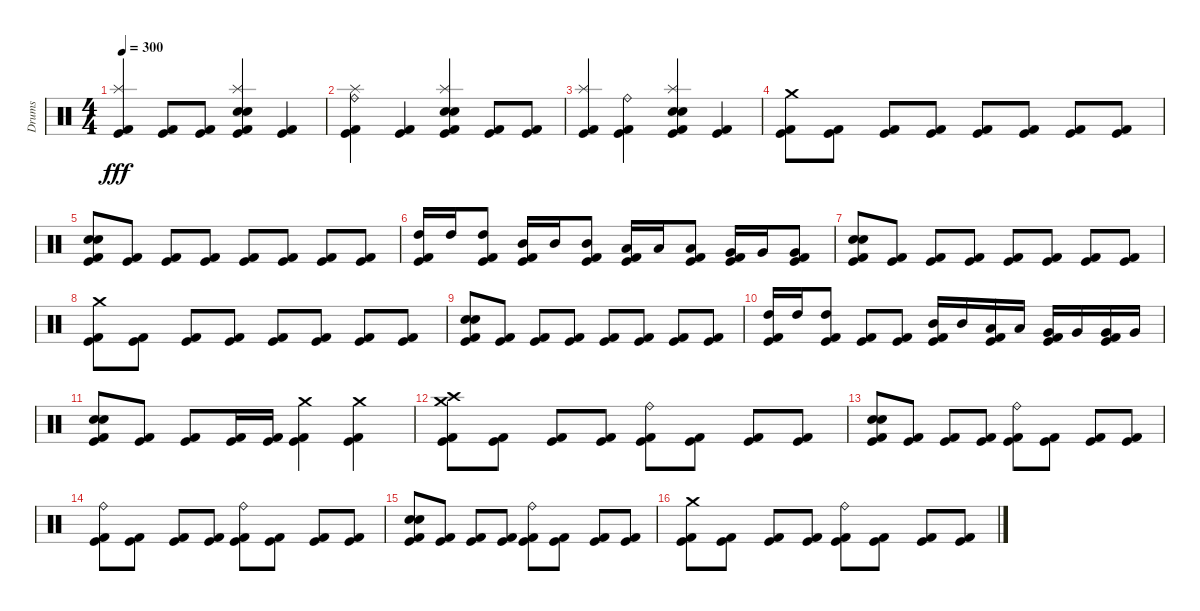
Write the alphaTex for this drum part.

\track ("Drums" "Drums") {instrument percussion}
\staff {score}
\articulation defaults
\ts (4 4)
\tempo 300
\clef neutral
\ks c
("Kick (hit) 2" "Splash (hit)" "Kick (hit)").4{dy fff} ("Kick (hit) 2" "Kick (hit)").8 ("Kick (hit) 2" "Kick (hit)").8 ("Kick (hit) 2" "Snare (hit) 2" "Electric Snare (hit)" "Splash (hit)" "Kick (hit)").4 ("Kick (hit) 2" "Kick (hit)").4 |
("Kick (hit) 2" "Ride (bell)" "Splash (hit)" "Kick (hit)").4 ("Kick (hit) 2" "Kick (hit)").4 ("Kick (hit) 2" "Electric Snare (hit)" "Snare (hit) 2" "Splash (hit)" "Kick (hit)").4 ("Kick (hit) 2" "Kick (hit)").8 ("Kick (hit) 2" "Kick (hit)").8 |
("Kick (hit) 2" "Splash (hit)" "Kick (hit)").4 ("Kick (hit) 2" "Ride (bell)" "Kick (hit)").4 ("Kick (hit) 2" "Snare (hit) 2" "Electric Snare (hit)" "Splash (hit)" "Kick (hit)").4 ("Kick (hit) 2" "Kick (hit)").4 |
("Crash medium (hit)" "Kick (hit) 2" "Kick (hit)").8 ("Kick (hit) 2" "Kick (hit)").8 ("Kick (hit) 2" "Kick (hit)").8 ("Kick (hit) 2" "Kick (hit)").8 ("Kick (hit) 2" "Kick (hit)").8 ("Kick (hit) 2" "Kick (hit)").8 ("Kick (hit) 2" "Kick (hit)").8 ("Kick (hit) 2" "Kick (hit)").8 |
("Kick (hit) 2" "Snare (hit) 2" "Electric Snare (hit)" "Kick (hit)").8 ("Kick (hit) 2" "Kick (hit)").8 ("Kick (hit) 2" "Kick (hit)").8 ("Kick (hit) 2" "Kick (hit)").8 ("Kick (hit) 2" "Kick (hit)").8 ("Kick (hit) 2" "Kick (hit)").8 ("Kick (hit) 2" "Kick (hit)").8 ("Kick (hit) 2" "Kick (hit)").8 |
("Kick (hit) 2" "High Tom (hit)" "Kick (hit)").16 "High Tom (hit)".16 ("Kick (hit) 2" "High Tom (hit)" "Kick (hit)").8 ("Kick (hit) 2" "Mid Tom (hit)" "Kick (hit)").16 "Mid Tom (hit)".16 ("Kick (hit) 2" "Mid Tom (hit)" "Kick (hit)").8 ("Kick (hit) 2" "Low Tom (hit)" "Kick (hit)").16 "Low Tom (hit)".16 ("Kick (hit) 2" "Low Tom (hit)" "Kick (hit)").8 ("Kick (hit) 2" "Very Low Tom (hit)" "Kick (hit)").16 "Very Low Tom (hit)".16 ("Kick (hit) 2" "Very Low Tom (hit)" "Kick (hit)").8 |
("Kick (hit) 2" "Snare (hit) 2" "Electric Snare (hit)" "Kick (hit)").8 ("Kick (hit) 2" "Kick (hit)").8 ("Kick (hit) 2" "Kick (hit)").8 ("Kick (hit) 2" "Kick (hit)").8 ("Kick (hit) 2" "Kick (hit)").8 ("Kick (hit) 2" "Kick (hit)").8 ("Kick (hit) 2" "Kick (hit)").8 ("Kick (hit) 2" "Kick (hit)").8 |
("Crash medium (hit)" "Kick (hit) 2" "Kick (hit)").8 ("Kick (hit) 2" "Kick (hit)").8 ("Kick (hit) 2" "Kick (hit)").8 ("Kick (hit) 2" "Kick (hit)").8 ("Kick (hit) 2" "Kick (hit)").8 ("Kick (hit) 2" "Kick (hit)").8 ("Kick (hit) 2" "Kick (hit)").8 ("Kick (hit) 2" "Kick (hit)").8 |
("Kick (hit) 2" "Snare (hit) 2" "Electric Snare (hit)" "Kick (hit)").8 ("Kick (hit) 2" "Kick (hit)").8 ("Kick (hit) 2" "Kick (hit)").8 ("Kick (hit) 2" "Kick (hit)").8 ("Kick (hit) 2" "Kick (hit)").8 ("Kick (hit) 2" "Kick (hit)").8 ("Kick (hit) 2" "Kick (hit)").8 ("Kick (hit) 2" "Kick (hit)").8 |
("Kick (hit) 2" "High Tom (hit)" "Kick (hit)").16 "High Tom (hit)".16 ("Kick (hit) 2" "High Tom (hit)" "Kick (hit)").8 ("Kick (hit) 2" "Kick (hit)").8 ("Kick (hit) 2" "Kick (hit)").8 ("Kick (hit) 2" "Mid Tom (hit)" "Kick (hit)").16 "Mid Tom (hit)".16 ("Kick (hit) 2" "Low Tom (hit)" "Kick (hit)").16 "Low Tom (hit)".16 ("Kick (hit) 2" "Very Low Tom (hit)" "Kick (hit)").16 "Very Low Tom (hit)".16 ("Kick (hit) 2" "Very Low Tom (hit)" "Kick (hit)").16 "Very Low Tom (hit)".16 |
("Kick (hit) 2" "Snare (hit) 2" "Electric Snare (hit)" "Kick (hit)").8 ("Kick (hit) 2" "Kick (hit)").8 ("Kick (hit) 2" "Kick (hit)").8 ("Kick (hit) 2" "Kick (hit)").16 ("Kick (hit) 2" "Kick (hit)").16 ("Crash medium (hit)" "Kick (hit) 2" "Kick (hit)").4 ("Crash medium (hit)" "Kick (hit) 2" "Kick (hit)").4 |
("Kick (hit) 2" "Crash high (hit)" "Crash medium (hit)" "Kick (hit)").8 ("Kick (hit) 2" "Kick (hit)").8 ("Kick (hit) 2" "Kick (hit)").8 ("Kick (hit) 2" "Kick (hit)").8 ("Kick (hit) 2" "Kick (hit)" "Ride (bell)").8 ("Kick (hit) 2" "Kick (hit)").8 ("Kick (hit) 2" "Kick (hit)").8 ("Kick (hit) 2" "Kick (hit)").8 |
("Kick (hit) 2" "Kick (hit)" "Electric Snare (hit)" "Snare (hit) 2").8 ("Kick (hit) 2" "Kick (hit)").8 ("Kick (hit) 2" "Kick (hit)").8 ("Kick (hit) 2" "Kick (hit)").8 ("Kick (hit) 2" "Kick (hit)" "Ride (bell)").8 ("Kick (hit) 2" "Kick (hit)").8 ("Kick (hit) 2" "Kick (hit)").8 ("Kick (hit) 2" "Kick (hit)").8 |
("Kick (hit) 2" "Ride (bell)" "Kick (hit)").8 ("Kick (hit) 2" "Kick (hit)").8 ("Kick (hit) 2" "Kick (hit)").8 ("Kick (hit) 2" "Kick (hit)").8 ("Kick (hit) 2" "Ride (bell)" "Kick (hit)").8 ("Kick (hit) 2" "Kick (hit)").8 ("Kick (hit) 2" "Kick (hit)").8 ("Kick (hit) 2" "Kick (hit)").8 |
("Kick (hit) 2" "Snare (hit) 2" "Electric Snare (hit)" "Kick (hit)").8 ("Kick (hit) 2" "Kick (hit)").8 ("Kick (hit) 2" "Kick (hit)").8 ("Kick (hit) 2" "Kick (hit)").8 ("Kick (hit) 2" "Ride (bell)" "Kick (hit)").8 ("Kick (hit) 2" "Kick (hit)").8 ("Kick (hit) 2" "Kick (hit)").8 ("Kick (hit) 2" "Kick (hit)").8 |
("Kick (hit) 2" "Crash medium (hit)" "Kick (hit)").8 ("Kick (hit) 2" "Kick (hit)").8 ("Kick (hit) 2" "Kick (hit)").8 ("Kick (hit) 2" "Kick (hit)").8 ("Kick (hit) 2" "Ride (bell)" "Kick (hit)").8 ("Kick (hit) 2" "Kick (hit)").8 ("Kick (hit) 2" "Kick (hit)").8 ("Kick (hit) 2" "Kick (hit)").8
